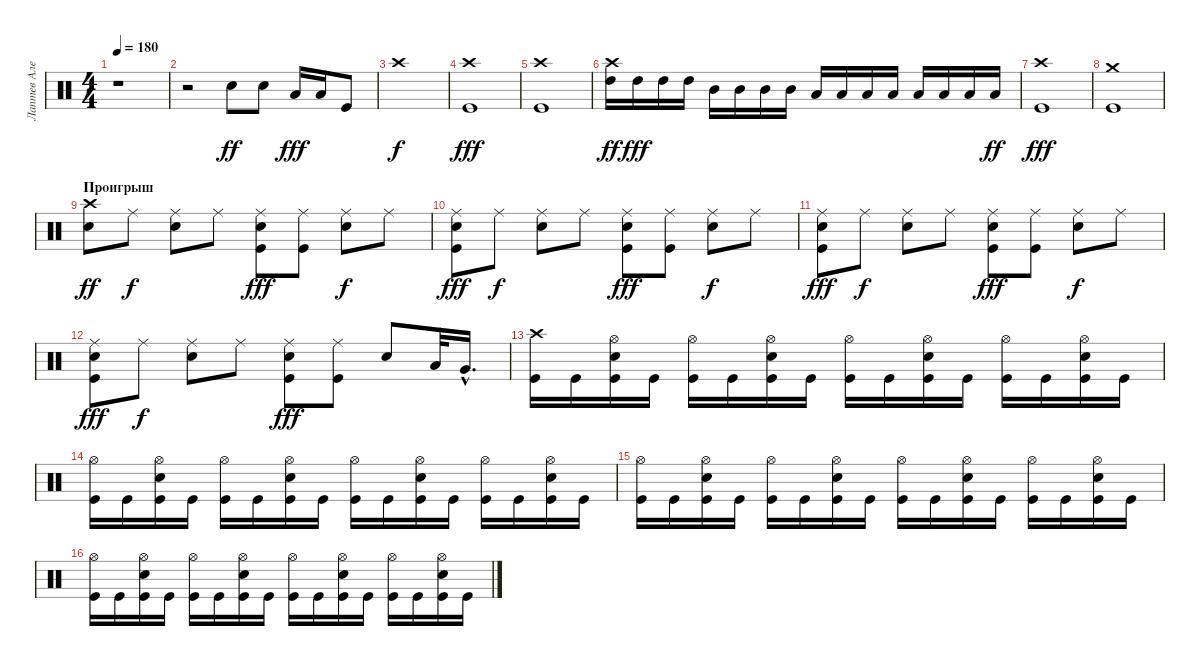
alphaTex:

\track ("Лаптев Алексей" "Лаптев Але") {instrument percussion}
\staff {score}
\articulation defaults
\ts (4 4)
\tempo 180
\clef neutral
\ks c
r.1{dy ff} |
r.2 "Snare (hit) 2".8 "Snare (hit) 2".8 "Low Tom (hit)".16{dy fff} "Low Tom (hit)".16 "Kick (hit)".8 |
"Crash high (hit)".1{dy f} |
("Crash high (hit)" "Kick (hit)").1{dy fff} |
("Crash high (hit)" "Kick (hit)").1 |
("High Tom (hit)" "Crash high (hit)").16{dy ff} "High Tom (hit)".16{dy fff} "High Tom (hit)".16 "High Tom (hit)".16 "Mid Tom (hit)".16 "Mid Tom (hit)".16 "Mid Tom (hit)".16 "Mid Tom (hit)".16 "Low Tom (hit)".16 "Low Tom (hit)".16 "Low Tom (hit)".16 "Low Tom (hit)".16 "Low Floor Tom (hit)".16 "Low Floor Tom (hit)".16 "Low Floor Tom (hit)".16 "Low Floor Tom (hit)".16{dy ff} |
("Crash high (hit)" "Kick (hit)").1{dy fff} |
("Crash medium (hit)" "Kick (hit)").1 |
\section ("" "Проигрыш")
("Crash high (hit)" "Snare (hit) 2").8{dy ff} "Ride (middle)".8{dy f} ("Snare (hit) 2" "Ride (middle)").8 "Ride (middle)".8 ("Ride (middle)" "Snare (hit) 2" "Kick (hit)").8{dy fff} ("Ride (middle)" "Kick (hit)").8 ("Ride (middle)" "Snare (hit) 2").8{dy f} "Ride (middle)".8 |
("Ride (middle)" "Snare (hit) 2" "Kick (hit)").8{dy fff} "Ride (middle)".8{dy f} ("Snare (hit) 2" "Ride (middle)").8 "Ride (middle)".8 ("Ride (middle)" "Snare (hit) 2" "Kick (hit)").8{dy fff} ("Ride (middle)" "Kick (hit)").8 ("Ride (middle)" "Snare (hit) 2").8{dy f} "Ride (middle)".8 |
("Ride (middle)" "Snare (hit) 2" "Kick (hit)").8{dy fff} "Ride (middle)".8{dy f} ("Snare (hit) 2" "Ride (middle)").8 "Ride (middle)".8 ("Ride (middle)" "Snare (hit) 2" "Kick (hit)").8{dy fff} ("Ride (middle)" "Kick (hit)").8 ("Ride (middle)" "Snare (hit) 2").8{dy f} "Ride (middle)".8 |
("Ride (middle)" "Snare (hit) 2" "Kick (hit)").8{dy fff} "Ride (middle)".8{dy f} ("Snare (hit) 2" "Ride (middle)").8 "Ride (middle)".8 ("Ride (middle)" "Snare (hit) 2" "Kick (hit)").8{dy fff} ("Ride (middle)" "Kick (hit)").8 "Snare (hit) 2".8 "Low Tom (hit)".32 "Very Low Tom (hit)"{hac}.16{d} |
("Crash high (hit)" "Kick (hit)").16 "Kick (hit)".16 ("Hi-Hat (open)" "Snare (hit) 2" "Kick (hit)").16 "Kick (hit)".16 ("Hi-Hat (open)" "Kick (hit)").16 "Kick (hit)".16 ("Snare (hit) 2" "Hi-Hat (open)" "Kick (hit)").16 "Kick (hit)".16 ("Hi-Hat (open)" "Kick (hit)").16 "Kick (hit)".16 ("Hi-Hat (open)" "Snare (hit) 2" "Kick (hit)").16 "Kick (hit)".16 ("Hi-Hat (open)" "Kick (hit)").16 "Kick (hit)".16 ("Hi-Hat (open)" "Snare (hit) 2" "Kick (hit)").16 "Kick (hit)".16 |
("Hi-Hat (open)" "Kick (hit)").16 "Kick (hit)".16 ("Hi-Hat (open)" "Snare (hit) 2" "Kick (hit)").16 "Kick (hit)".16 ("Hi-Hat (open)" "Kick (hit)").16 "Kick (hit)".16 ("Snare (hit) 2" "Hi-Hat (open)" "Kick (hit)").16 "Kick (hit)".16 ("Hi-Hat (open)" "Kick (hit)").16 "Kick (hit)".16 ("Hi-Hat (open)" "Snare (hit) 2" "Kick (hit)").16 "Kick (hit)".16 ("Hi-Hat (open)" "Kick (hit)").16 "Kick (hit)".16 ("Hi-Hat (open)" "Snare (hit) 2" "Kick (hit)").16 "Kick (hit)".16 |
("Hi-Hat (open)" "Kick (hit)").16 "Kick (hit)".16 ("Hi-Hat (open)" "Snare (hit) 2" "Kick (hit)").16 "Kick (hit)".16 ("Hi-Hat (open)" "Kick (hit)").16 "Kick (hit)".16 ("Snare (hit) 2" "Hi-Hat (open)" "Kick (hit)").16 "Kick (hit)".16 ("Hi-Hat (open)" "Kick (hit)").16 "Kick (hit)".16 ("Hi-Hat (open)" "Snare (hit) 2" "Kick (hit)").16 "Kick (hit)".16 ("Hi-Hat (open)" "Kick (hit)").16 "Kick (hit)".16 ("Hi-Hat (open)" "Snare (hit) 2" "Kick (hit)").16 "Kick (hit)".16 |
("Hi-Hat (open)" "Kick (hit)").16 "Kick (hit)".16 ("Hi-Hat (open)" "Snare (hit) 2" "Kick (hit)").16 "Kick (hit)".16 ("Hi-Hat (open)" "Kick (hit)").16 "Kick (hit)".16 ("Snare (hit) 2" "Hi-Hat (open)" "Kick (hit)").16 "Kick (hit)".16 ("Hi-Hat (open)" "Kick (hit)").16 "Kick (hit)".16 ("Hi-Hat (open)" "Snare (hit) 2" "Kick (hit)").16 "Kick (hit)".16 ("Hi-Hat (open)" "Kick (hit)").16 "Kick (hit)".16 ("Hi-Hat (open)" "Snare (hit) 2" "Kick (hit)").16 "Kick (hit)".16
